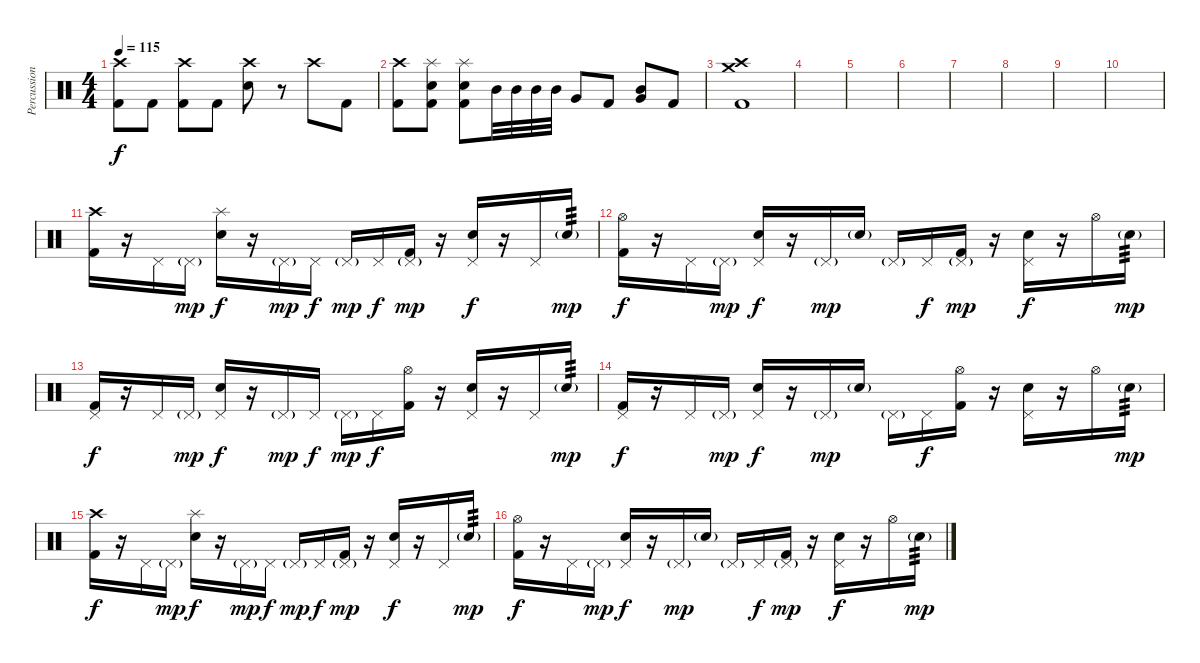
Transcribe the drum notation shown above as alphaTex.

\track ("Percussion" "Percussion") {instrument percussion}
\staff {score}
\articulation defaults
\ts (4 4)
\tempo 115
\clef neutral
\ks c
("Kick (hit) 2" "Crash high (hit)").8{dy f} "Kick (hit) 2".8 ("Kick (hit) 2" "Crash high (hit)").8 "Kick (hit) 2".8 ("Electric Snare (hit)" "Crash high (hit)").8 r.8 "Crash high (hit)".8 "Kick (hit) 2".8 |
("Kick (hit) 2" "Crash high (hit)").8 ("Kick (hit) 2" "Electric Snare (hit)" "Splash (hit)").8 ("Kick (hit) 2" "Electric Snare (hit)" "Splash (hit)").8 "Mid Tom (hit)".32 "Mid Tom (hit)".32 "Mid Tom (hit)".32 "Mid Tom (hit)".32 "Very Low Tom (hit)".8 "Kick (hit) 2".8 ("Very Low Tom (hit)" "Mid Tom (hit)").8 "Kick (hit) 2".8 |
("Kick (hit) 2" "Crash medium (hit)" "Crash high (hit)").1 |
|
|
|
|
|
|
|
("Kick (hit) 2" "Crash high (hit)").16 r.16 "Pedal Hi-Hat (hit)".16 "Pedal Hi-Hat (hit)"{g}.16{dy mp} ("Electric Snare (hit)" "Splash (hit)").16{dy f} r.16 "Pedal Hi-Hat (hit)"{g}.16{dy mp} "Pedal Hi-Hat (hit)".16{dy f} "Pedal Hi-Hat (hit)"{g}.16{dy mp} "Pedal Hi-Hat (hit)".16{dy f} ("Kick (hit) 2" "Pedal Hi-Hat (hit)"{g}).16{dy mp} r.16 ("Electric Snare (hit)" "Pedal Hi-Hat (hit)").16{dy f} r.16 "Pedal Hi-Hat (hit)".16 "Electric Snare (hit)"{g}.16{tp 3 dy mp} |
("Kick (hit) 2" "Hi-Hat (open)").16{dy f} r.16 "Pedal Hi-Hat (hit)".16 "Pedal Hi-Hat (hit)"{g}.16{dy mp} ("Electric Snare (hit)" "Pedal Hi-Hat (hit)").16{dy f} r.16 "Pedal Hi-Hat (hit)"{g}.16{dy mp} "Electric Snare (hit)"{g}.16 "Pedal Hi-Hat (hit)"{g}.16 "Pedal Hi-Hat (hit)".16{dy f} ("Kick (hit) 2" "Pedal Hi-Hat (hit)"{g}).16{dy mp} r.16 ("Electric Snare (hit)" "Pedal Hi-Hat (hit)").16{dy f} r.16 "Hi-Hat (open)".16 "Electric Snare (hit)"{g}.16{tp 3 dy mp} |
("Kick (hit) 2" "Pedal Hi-Hat (hit)").16{dy f} r.16 "Pedal Hi-Hat (hit)".16 "Pedal Hi-Hat (hit)"{g}.16{dy mp} ("Electric Snare (hit)" "Pedal Hi-Hat (hit)").16{dy f} r.16 "Pedal Hi-Hat (hit)"{g}.16{dy mp} "Pedal Hi-Hat (hit)".16{dy f} "Pedal Hi-Hat (hit)"{g}.16{dy mp} "Pedal Hi-Hat (hit)".16{dy f} ("Kick (hit) 2" "Hi-Hat (open)").16 r.16 ("Electric Snare (hit)" "Pedal Hi-Hat (hit)").16 r.16 "Pedal Hi-Hat (hit)".16 "Electric Snare (hit)"{g}.16{tp 3 dy mp} |
("Kick (hit) 2" "Pedal Hi-Hat (hit)").16{dy f} r.16 "Pedal Hi-Hat (hit)".16 "Pedal Hi-Hat (hit)"{g}.16{dy mp} ("Electric Snare (hit)" "Pedal Hi-Hat (hit)").16{dy f} r.16 "Pedal Hi-Hat (hit)"{g}.16{dy mp} "Electric Snare (hit)"{g}.16 "Pedal Hi-Hat (hit)"{g}.16 "Pedal Hi-Hat (hit)".16{dy f} ("Kick (hit) 2" "Hi-Hat (open)").16 r.16 ("Electric Snare (hit)" "Pedal Hi-Hat (hit)").16 r.16 "Hi-Hat (open)".16 "Electric Snare (hit)"{g}.16{tp 3 dy mp} |
("Kick (hit) 2" "Crash high (hit)").16{dy f} r.16 "Pedal Hi-Hat (hit)".16 "Pedal Hi-Hat (hit)"{g}.16{dy mp} ("Electric Snare (hit)" "Splash (hit)").16{dy f} r.16 "Pedal Hi-Hat (hit)"{g}.16{dy mp} "Pedal Hi-Hat (hit)".16{dy f} "Pedal Hi-Hat (hit)"{g}.16{dy mp} "Pedal Hi-Hat (hit)".16{dy f} ("Kick (hit) 2" "Pedal Hi-Hat (hit)"{g}).16{dy mp} r.16 ("Electric Snare (hit)" "Pedal Hi-Hat (hit)").16{dy f} r.16 "Pedal Hi-Hat (hit)".16 "Electric Snare (hit)"{g}.16{tp 3 dy mp} |
("Kick (hit) 2" "Hi-Hat (open)").16{dy f} r.16 "Pedal Hi-Hat (hit)".16 "Pedal Hi-Hat (hit)"{g}.16{dy mp} ("Electric Snare (hit)" "Pedal Hi-Hat (hit)").16{dy f} r.16 "Pedal Hi-Hat (hit)"{g}.16{dy mp} "Electric Snare (hit)"{g}.16 "Pedal Hi-Hat (hit)"{g}.16 "Pedal Hi-Hat (hit)".16{dy f} ("Kick (hit) 2" "Pedal Hi-Hat (hit)"{g}).16{dy mp} r.16 ("Electric Snare (hit)" "Pedal Hi-Hat (hit)").16{dy f} r.16 "Hi-Hat (open)".16 "Electric Snare (hit)"{g}.16{tp 3 dy mp}
